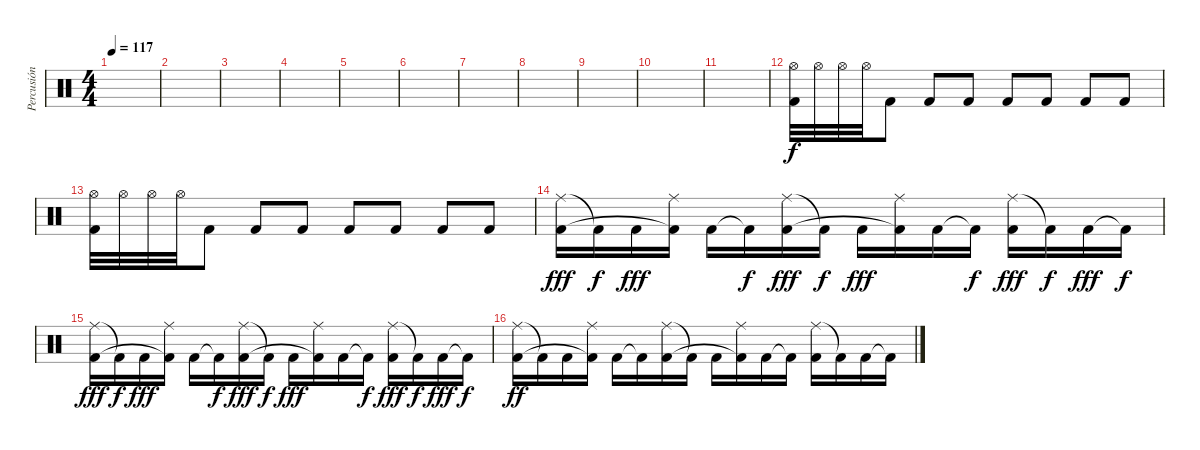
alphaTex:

\track ("Percusión" "Percusión") {instrument percussion}
\staff {score}
\articulation defaults
\ts (4 4)
\tempo 117
\clef neutral
\ks c
|
|
|
|
|
|
|
|
|
|
|
("Hi-Hat (open)" "Kick (hit) 2").32 "Hi-Hat (open)".32 "Hi-Hat (open)".32 "Hi-Hat (open)".32 "Kick (hit) 2".8 "Kick (hit) 2".8 "Kick (hit) 2".8 "Kick (hit) 2".8 "Kick (hit) 2".8 "Kick (hit) 2".8 "Kick (hit) 2".8 |
("Hi-Hat (open)" "Kick (hit) 2").32 "Hi-Hat (open)".32 "Hi-Hat (open)".32 "Hi-Hat (open)".32 "Kick (hit) 2".8 "Kick (hit) 2".8 "Kick (hit) 2".8 "Kick (hit) 2".8 "Kick (hit) 2".8 "Kick (hit) 2".8 "Kick (hit) 2".8 |
("Ride (middle)" "Kick (hit) 2").16{dy fff} "Kick (hit) 2"{t}.16{dy f} "Kick (hit) 2".16{dy fff} ("Ride (middle)" "Kick (hit) 2"{t}).16 "Kick (hit) 2".16 "Kick (hit) 2"{t}.16{dy f} ("Ride (middle)" "Kick (hit) 2").16{dy fff} "Kick (hit) 2"{t}.16{dy f} "Kick (hit) 2".16{dy fff} ("Ride (middle)" "Kick (hit) 2"{t}).16 "Kick (hit) 2".16 "Kick (hit) 2"{t}.16{dy f} ("Ride (middle)" "Kick (hit) 2").16{dy fff} "Kick (hit) 2"{t}.16{dy f} "Kick (hit) 2".16{dy fff} "Kick (hit) 2"{t}.16{dy f} |
("Ride (middle)" "Kick (hit) 2").16{dy fff} "Kick (hit) 2"{t}.16{dy f} "Kick (hit) 2".16{dy fff} ("Ride (middle)" "Kick (hit) 2"{t}).16 "Kick (hit) 2".16 "Kick (hit) 2"{t}.16{dy f} ("Ride (middle)" "Kick (hit) 2").16{dy fff} "Kick (hit) 2"{t}.16{dy f} "Kick (hit) 2".16{dy fff} ("Ride (middle)" "Kick (hit) 2"{t}).16 "Kick (hit) 2".16 "Kick (hit) 2"{t}.16{dy f} ("Ride (middle)" "Kick (hit) 2").16{dy fff} "Kick (hit) 2"{t}.16{dy f} "Kick (hit) 2".16{dy fff} "Kick (hit) 2"{t}.16{dy f} |
("Ride (middle)" "Kick (hit) 2").16{dy ff} "Kick (hit) 2"{t}.16 "Kick (hit) 2".16 ("Ride (middle)" "Kick (hit) 2"{t}).16 "Kick (hit) 2".16 "Kick (hit) 2"{t}.16 ("Ride (middle)" "Kick (hit) 2").16 "Kick (hit) 2"{t}.16 "Kick (hit) 2".16 ("Ride (middle)" "Kick (hit) 2"{t}).16 "Kick (hit) 2".16 "Kick (hit) 2"{t}.16 ("Ride (middle)" "Kick (hit) 2").16 "Kick (hit) 2"{t}.16 "Kick (hit) 2".16 "Kick (hit) 2"{t}.16
